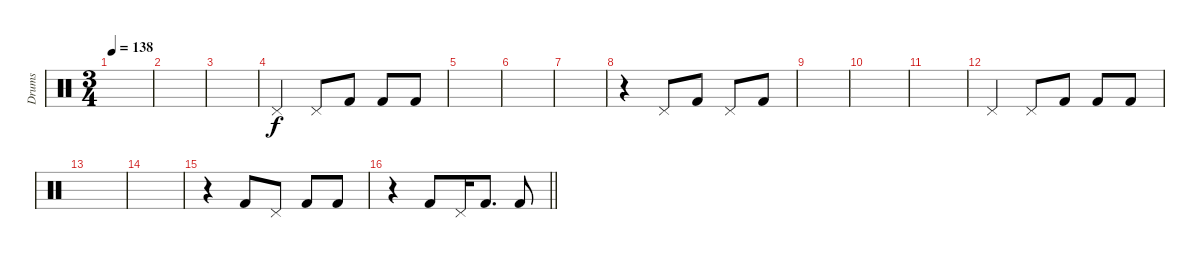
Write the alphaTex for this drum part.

\track ("Drums" "Drums") {instrument percussion}
\staff {score}
\articulation defaults
\ts (3 4)
\tempo 138
\clef neutral
\ks c
|
|
|
"Pedal Hi-Hat (hit)".4 "Pedal Hi-Hat (hit)".8 "Kick (hit) 2".8 "Kick (hit) 2".8 "Kick (hit) 2".8 |
|
|
|
r.4 "Pedal Hi-Hat (hit)".8 "Kick (hit) 2".8 "Pedal Hi-Hat (hit)".8 "Kick (hit) 2".8 |
|
|
|
"Pedal Hi-Hat (hit)".4 "Pedal Hi-Hat (hit)".8 "Kick (hit) 2".8 "Kick (hit) 2".8 "Kick (hit) 2".8 |
|
|
r.4 "Kick (hit) 2".8 "Pedal Hi-Hat (hit)".8 "Kick (hit) 2".8 "Kick (hit) 2".8 |
\barLineRight lightlight
r.4 "Kick (hit) 2".8 "Pedal Hi-Hat (hit)".16 "Kick (hit) 2".8{d} "Kick (hit) 2".8
